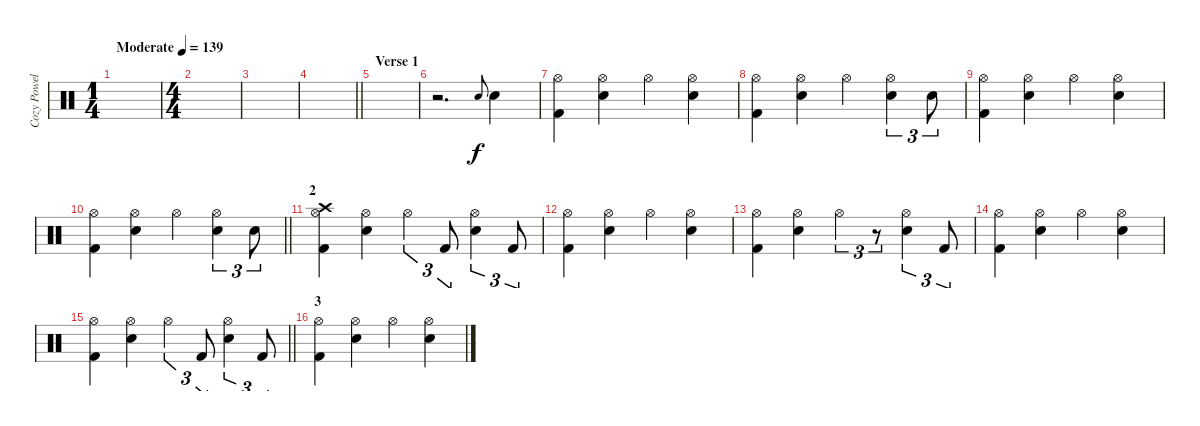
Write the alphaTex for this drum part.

\track ("Cozy Powell" "Cozy Powel") {instrument percussion}
\staff {score}
\articulation defaults
\ts (1 4)
\tempo (139 "Moderate")
\clef neutral
\ks c
|
\ts (4 4)
|
|
\barLineRight lightlight
|
\section ("" "Verse 1")
|
r.2{d} "Snare (hit) 2".8{gr onbeat} "Snare (hit) 2".4 |
("Hi-Hat (open)" "Kick (hit) 2").4 ("Hi-Hat (open)" "Snare (hit) 2").4 "Hi-Hat (open)".4 ("Hi-Hat (open)" "Snare (hit) 2").4 |
("Hi-Hat (open)" "Kick (hit) 2").4 ("Hi-Hat (open)" "Snare (hit) 2").4 "Hi-Hat (open)".4 ("Hi-Hat (open)" "Snare (hit) 2").4{tu (3 2)} "Snare (hit) 2".8{tu (3 2)} |
("Hi-Hat (open)" "Kick (hit) 2").4 ("Hi-Hat (open)" "Snare (hit) 2").4 "Hi-Hat (open)".4 ("Hi-Hat (open)" "Snare (hit) 2").4 |
\barLineRight lightlight
("Hi-Hat (open)" "Kick (hit) 2").4 ("Hi-Hat (open)" "Snare (hit) 2").4 "Hi-Hat (open)".4 ("Hi-Hat (open)" "Snare (hit) 2").4{tu (3 2)} "Snare (hit) 2".8{tu (3 2)} |
\section ("" "2")
("Hi-Hat (open)" "Crash high (hit)" "Kick (hit) 2").4 ("Hi-Hat (open)" "Snare (hit) 2").4 "Hi-Hat (open)".4{tu (3 2)} "Kick (hit) 2".8{tu (3 2)} ("Hi-Hat (open)" "Snare (hit) 2").4{tu (3 2)} "Kick (hit) 2".8{tu (3 2)} |
("Hi-Hat (open)" "Kick (hit) 2").4 ("Hi-Hat (open)" "Snare (hit) 2").4 "Hi-Hat (open)".4 ("Hi-Hat (open)" "Snare (hit) 2").4 |
("Hi-Hat (open)" "Kick (hit) 2").4 ("Hi-Hat (open)" "Snare (hit) 2").4 "Hi-Hat (open)".4{tu (3 2)} r.8{tu (3 2)} ("Hi-Hat (open)" "Snare (hit) 2").4{tu (3 2)} "Kick (hit) 2".8{tu (3 2)} |
("Hi-Hat (open)" "Kick (hit) 2").4 ("Hi-Hat (open)" "Snare (hit) 2").4 "Hi-Hat (open)".4 ("Hi-Hat (open)" "Snare (hit) 2").4 |
\barLineRight lightlight
("Hi-Hat (open)" "Kick (hit) 2").4 ("Hi-Hat (open)" "Snare (hit) 2").4 "Hi-Hat (open)".4{tu (3 2)} "Kick (hit) 2".8{tu (3 2)} ("Hi-Hat (open)" "Snare (hit) 2").4{tu (3 2)} "Kick (hit) 2".8{tu (3 2)} |
\section ("" "3")
("Hi-Hat (open)" "Kick (hit) 2").4 ("Hi-Hat (open)" "Snare (hit) 2").4 "Hi-Hat (open)".4 ("Hi-Hat (open)" "Snare (hit) 2").4
